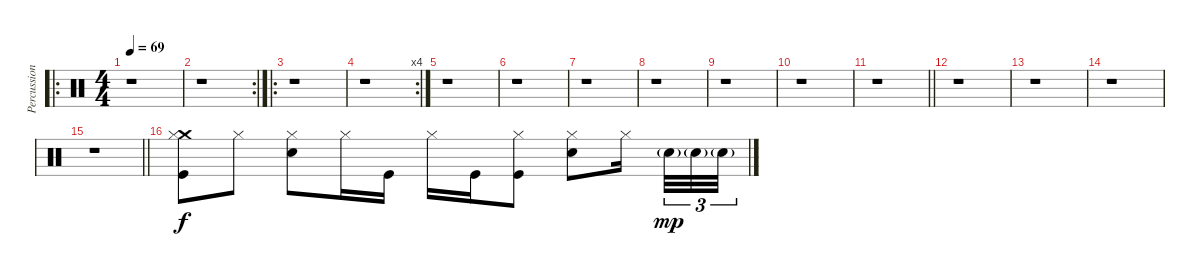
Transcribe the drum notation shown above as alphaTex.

\track ("Percussion" "Percussion") {instrument percussion}
\staff {score}
\articulation defaults
\ro
\ts (4 4)
\tempo 69
\clef neutral
\ks c
r.1{dy f} |
\rc 2
r.1 |
\ro
r.1 |
\rc 4
r.1 |
r.1 |
r.1 |
r.1 |
r.1 |
r.1 |
r.1 |
\barLineRight lightlight
r.1 |
r.1 |
r.1 |
r.1 |
\barLineRight lightlight
r.1 |
("Crash medium (hit)" "Kick (hit)" "Hi-Hat (closed)").8 "Hi-Hat (closed)".8 ("Electric Snare (hit)" "Hi-Hat (closed)").8 "Hi-Hat (closed)".16 "Kick (hit)".16 "Hi-Hat (closed)".16 "Kick (hit)".16 ("Kick (hit)" "Hi-Hat (closed)").8 ("Electric Snare (hit)" "Hi-Hat (closed)").8 "Hi-Hat (closed)".16{beam splitsecondary} "Electric Snare (hit)"{g}.32{tu (3 2) dy mp} "Electric Snare (hit)"{g}.32{tu (3 2)} "Electric Snare (hit)"{g}.32{tu (3 2)}
